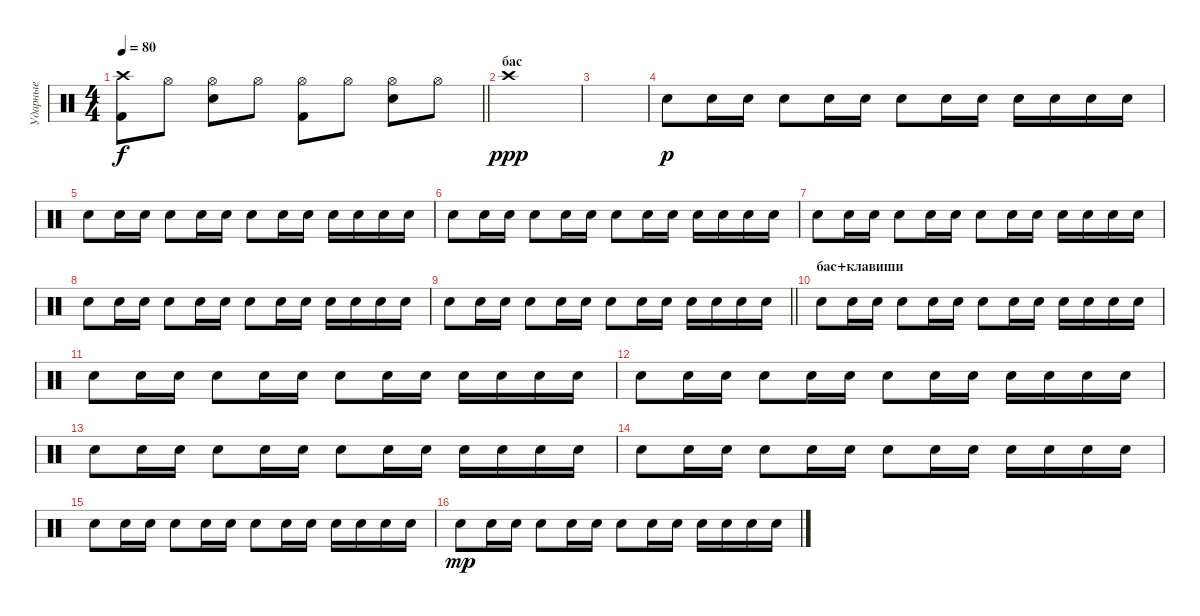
\track ("Ударные" "Ударные") {instrument percussion}
\staff {score}
\articulation defaults
\ts (4 4)
\tempo 80
\clef neutral
\barLineRight lightlight
\ks c
("Crash high (hit)" "Kick (hit) 2").8{dy f} "Hi-Hat (open)".8 ("Hi-Hat (open)" "Electric Snare (hit)").8 "Hi-Hat (open)".8 ("Kick (hit) 2" "Hi-Hat (open)").8 "Hi-Hat (open)".8 ("Hi-Hat (open)" "Electric Snare (hit)").8 "Hi-Hat (open)".8 |
\section ("" "бас")
"Crash high (hit)".1{dy ppp} |
|
"Snare (hit) 2".8{dy p} "Snare (hit) 2".16 "Snare (hit) 2".16 "Snare (hit) 2".8 "Snare (hit) 2".16 "Snare (hit) 2".16 "Snare (hit) 2".8 "Snare (hit) 2".16 "Snare (hit) 2".16 "Snare (hit) 2".16 "Snare (hit) 2".16 "Snare (hit) 2".16 "Snare (hit) 2".16 |
"Snare (hit) 2".8 "Snare (hit) 2".16 "Snare (hit) 2".16 "Snare (hit) 2".8 "Snare (hit) 2".16 "Snare (hit) 2".16 "Snare (hit) 2".8 "Snare (hit) 2".16 "Snare (hit) 2".16 "Snare (hit) 2".16 "Snare (hit) 2".16 "Snare (hit) 2".16 "Snare (hit) 2".16 |
"Snare (hit) 2".8 "Snare (hit) 2".16 "Snare (hit) 2".16 "Snare (hit) 2".8 "Snare (hit) 2".16 "Snare (hit) 2".16 "Snare (hit) 2".8 "Snare (hit) 2".16 "Snare (hit) 2".16 "Snare (hit) 2".16 "Snare (hit) 2".16 "Snare (hit) 2".16 "Snare (hit) 2".16 |
"Snare (hit) 2".8 "Snare (hit) 2".16 "Snare (hit) 2".16 "Snare (hit) 2".8 "Snare (hit) 2".16 "Snare (hit) 2".16 "Snare (hit) 2".8 "Snare (hit) 2".16 "Snare (hit) 2".16 "Snare (hit) 2".16 "Snare (hit) 2".16 "Snare (hit) 2".16 "Snare (hit) 2".16 |
"Snare (hit) 2".8 "Snare (hit) 2".16 "Snare (hit) 2".16 "Snare (hit) 2".8 "Snare (hit) 2".16 "Snare (hit) 2".16 "Snare (hit) 2".8 "Snare (hit) 2".16 "Snare (hit) 2".16 "Snare (hit) 2".16 "Snare (hit) 2".16 "Snare (hit) 2".16 "Snare (hit) 2".16 |
\barLineRight lightlight "Snare (hit) 2".8 "Snare (hit) 2".16 "Snare (hit) 2".16 "Snare (hit) 2".8 "Snare (hit) 2".16 "Snare (hit) 2".16 "Snare (hit) 2".8 "Snare (hit) 2".16 "Snare (hit) 2".16 "Snare (hit) 2".16 "Snare (hit) 2".16 "Snare (hit) 2".16 "Snare (hit) 2".16
|
\section ("" "бас+клавиши")
"Snare (hit) 2".8 "Snare (hit) 2".16 "Snare (hit) 2".16 "Snare (hit) 2".8 "Snare (hit) 2".16 "Snare (hit) 2".16 "Snare (hit) 2".8 "Snare (hit) 2".16 "Snare (hit) 2".16 "Snare (hit) 2".16 "Snare (hit) 2".16 "Snare (hit) 2".16 "Snare (hit) 2".16 |
"Snare (hit) 2".8 "Snare (hit) 2".16 "Snare (hit) 2".16 "Snare (hit) 2".8 "Snare (hit) 2".16 "Snare (hit) 2".16 "Snare (hit) 2".8 "Snare (hit) 2".16 "Snare (hit) 2".16 "Snare (hit) 2".16 "Snare (hit) 2".16 "Snare (hit) 2".16 "Snare (hit) 2".16 |
"Snare (hit) 2".8 "Snare (hit) 2".16 "Snare (hit) 2".16 "Snare (hit) 2".8 "Snare (hit) 2".16 "Snare (hit) 2".16 "Snare (hit) 2".8 "Snare (hit) 2".16 "Snare (hit) 2".16 "Snare (hit) 2".16 "Snare (hit) 2".16 "Snare (hit) 2".16 "Snare (hit) 2".16 |
"Snare (hit) 2".8 "Snare (hit) 2".16 "Snare (hit) 2".16 "Snare (hit) 2".8 "Snare (hit) 2".16 "Snare (hit) 2".16 "Snare (hit) 2".8 "Snare (hit) 2".16 "Snare (hit) 2".16 "Snare (hit) 2".16 "Snare (hit) 2".16 "Snare (hit) 2".16 "Snare (hit) 2".16 |
"Snare (hit) 2".8 "Snare (hit) 2".16 "Snare (hit) 2".16 "Snare (hit) 2".8 "Snare (hit) 2".16 "Snare (hit) 2".16 "Snare (hit) 2".8 "Snare (hit) 2".16 "Snare (hit) 2".16 "Snare (hit) 2".16 "Snare (hit) 2".16 "Snare (hit) 2".16 "Snare (hit) 2".16 |
"Snare (hit) 2".8 "Snare (hit) 2".16 "Snare (hit) 2".16 "Snare (hit) 2".8 "Snare (hit) 2".16 "Snare (hit) 2".16 "Snare (hit) 2".8 "Snare (hit) 2".16 "Snare (hit) 2".16 "Snare (hit) 2".16 "Snare (hit) 2".16 "Snare (hit) 2".16 "Snare (hit) 2".16 |
"Snare (hit) 2".8{dy mp} "Snare (hit) 2".16 "Snare (hit) 2".16 "Snare (hit) 2".8 "Snare (hit) 2".16 "Snare (hit) 2".16 "Snare (hit) 2".8 "Snare (hit) 2".16 "Snare (hit) 2".16 "Snare (hit) 2".16 "Snare (hit) 2".16 "Snare (hit) 2".16 "Snare (hit) 2".16
